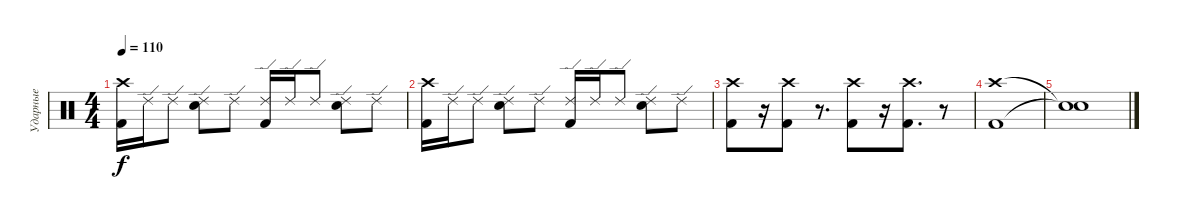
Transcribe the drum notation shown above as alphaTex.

\track ("Ударные" "Ударные") {instrument percussion}
\staff {score}
\articulation defaults
\ts (4 4)
\tempo 110
\clef neutral
\ks c
("Kick (hit) 2" "Crash high (hit)").16{dy f} "Ride (edge) 2".16 "Ride (edge) 2".8 ("Electric Snare (hit)" "Ride (edge) 2").8 "Ride (edge) 2".8 ("Kick (hit) 2" "Ride (edge) 2").16 "Ride (edge) 2".16 "Ride (edge) 2".8 ("Electric Snare (hit)" "Ride (edge) 2").8 "Ride (edge) 2".8 |
("Kick (hit) 2" "Crash high (hit)").16 "Ride (edge) 2".16 "Ride (edge) 2".8 ("Electric Snare (hit)" "Ride (edge) 2").8 "Ride (edge) 2".8 ("Kick (hit) 2" "Ride (edge) 2").16 "Ride (edge) 2".16 "Ride (edge) 2".8 ("Electric Snare (hit)" "Ride (edge) 2").8 "Ride (edge) 2".8 |
("Kick (hit) 2" "Crash high (hit)").8 r.16 ("Kick (hit) 2" "Crash high (hit)").8 r.8{d} ("Kick (hit) 2" "Crash high (hit)").8 r.16 ("Kick (hit) 2" "Crash high (hit)").8{d} r.8 |
("Kick (hit) 2" "Crash high (hit)").1 |
("Snare (hit)"{t} "Snare (hit)"{t}).1
